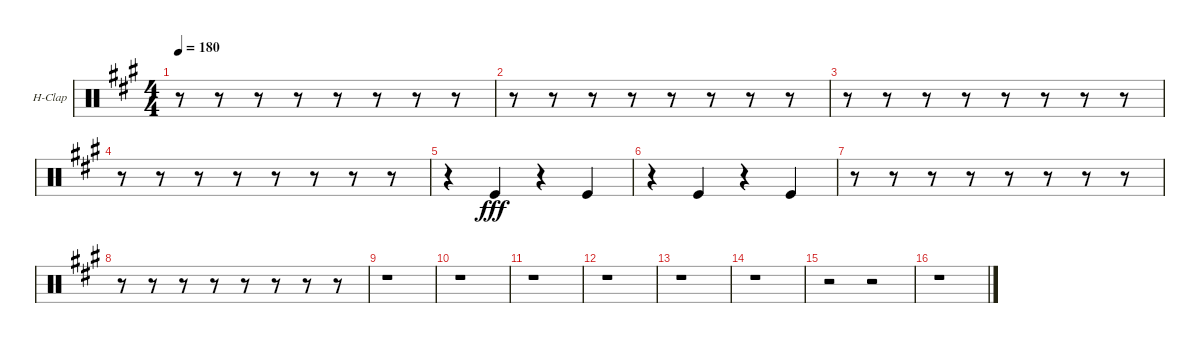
\bracketExtendMode groupsimilarinstruments
\firstSystemTrackNameOrientation horizontal
\otherSystemsTrackNameOrientation horizontal
\track ("Hand Clap" "H-Clap") {instrument percussion}
\staff {score}
\articulation defaults
\ts (4 4)
\tempo 180
\clef neutral
\ks a
r.8{dy fff} r.8 r.8 r.8 r.8 r.8 r.8 r.8 |
r.8 r.8 r.8 r.8 r.8 r.8 r.8 r.8 |
r.8 r.8 r.8 r.8 r.8 r.8 r.8 r.8 |
r.8 r.8 r.8 r.8 r.8 r.8 r.8 r.8 |
r.4 "Kick (hit)".4 r.4 "Kick (hit)".4 |
r.4 "Kick (hit)".4 r.4 "Kick (hit)".4 |
r.8 r.8 r.8 r.8 r.8 r.8 r.8 r.8 |
r.8 r.8 r.8 r.8 r.8 r.8 r.8 r.8 |
r.1 |
r.1 |
r.1 |
r.1 |
r.1 |
r.1 |
r.2 r.2 |
r.1
